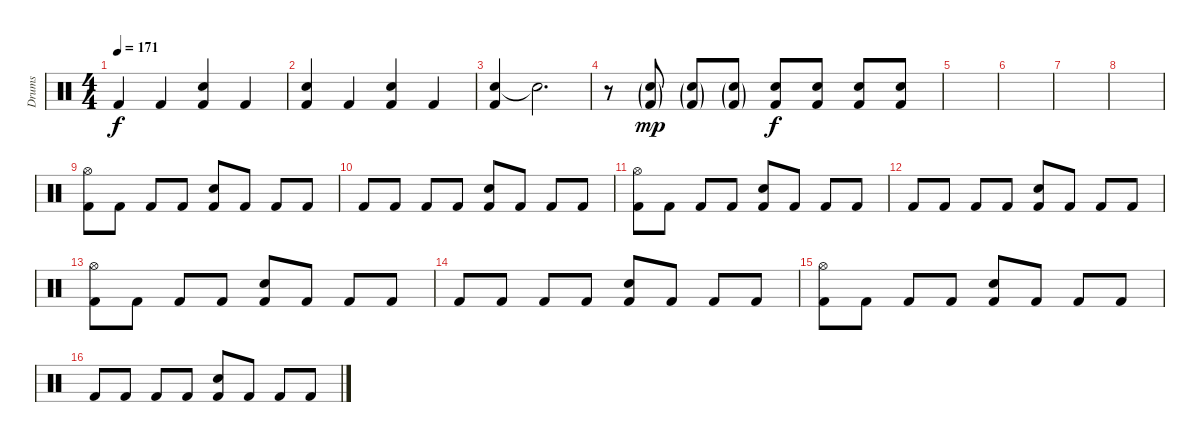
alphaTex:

\track ("Drums" "Drums") {instrument percussion}
\staff {score}
\articulation defaults
\ts (4 4)
\tempo 171
\clef neutral
\ks c "Kick (hit) 2".4{dy f} "Kick (hit) 2".4
("Snare (hit) 2" "Kick (hit) 2").4 "Kick (hit) 2".4 |
("Snare (hit) 2" "Kick (hit) 2").4 "Kick (hit) 2".4 ("Snare (hit) 2" "Kick (hit) 2").4 "Kick (hit) 2".4 |
("Snare (hit) 2" "Kick (hit) 2").4 "Snare (hit)"{t}.2{d} |
r.8 ("Snare (hit) 2"{g} "Kick (hit) 2"{g}).8{dy mp} ("Snare (hit) 2"{g} "Kick (hit) 2"{g}).8 ("Snare (hit) 2"{g} "Kick (hit) 2"{g}).8 ("Snare (hit) 2" "Kick (hit) 2").8{dy f} ("Snare (hit) 2" "Kick (hit) 2").8 ("Snare (hit) 2" "Kick (hit) 2").8 ("Snare (hit) 2" "Kick (hit) 2").8 |
|
|
|
|
("Hi-Hat (open)" "Kick (hit) 2").8 "Kick (hit) 2".8 "Kick (hit) 2".8 "Kick (hit) 2".8 ("Snare (hit) 2" "Kick (hit) 2").8 "Kick (hit) 2".8 "Kick (hit) 2".8 "Kick (hit) 2".8 |
"Kick (hit) 2".8 "Kick (hit) 2".8 "Kick (hit) 2".8 "Kick (hit) 2".8 ("Snare (hit) 2" "Kick (hit) 2").8 "Kick (hit) 2".8 "Kick (hit) 2".8 "Kick (hit) 2".8 |
("Hi-Hat (open)" "Kick (hit) 2").8 "Kick (hit) 2".8 "Kick (hit) 2".8 "Kick (hit) 2".8 ("Snare (hit) 2" "Kick (hit) 2").8 "Kick (hit) 2".8 "Kick (hit) 2".8 "Kick (hit) 2".8 |
"Kick (hit) 2".8 "Kick (hit) 2".8 "Kick (hit) 2".8 "Kick (hit) 2".8 ("Snare (hit) 2" "Kick (hit) 2").8 "Kick (hit) 2".8 "Kick (hit) 2".8 "Kick (hit) 2".8 |
("Hi-Hat (open)" "Kick (hit) 2").8 "Kick (hit) 2".8 "Kick (hit) 2".8 "Kick (hit) 2".8 ("Snare (hit) 2" "Kick (hit) 2").8 "Kick (hit) 2".8 "Kick (hit) 2".8 "Kick (hit) 2".8 |
"Kick (hit) 2".8 "Kick (hit) 2".8 "Kick (hit) 2".8 "Kick (hit) 2".8 ("Snare (hit) 2" "Kick (hit) 2").8 "Kick (hit) 2".8 "Kick (hit) 2".8 "Kick (hit) 2".8 |
("Hi-Hat (open)" "Kick (hit) 2").8 "Kick (hit) 2".8 "Kick (hit) 2".8 "Kick (hit) 2".8 ("Snare (hit) 2" "Kick (hit) 2").8 "Kick (hit) 2".8 "Kick (hit) 2".8 "Kick (hit) 2".8 |
"Kick (hit) 2".8 "Kick (hit) 2".8 "Kick (hit) 2".8 "Kick (hit) 2".8 ("Snare (hit) 2" "Kick (hit) 2").8 "Kick (hit) 2".8 "Kick (hit) 2".8 "Kick (hit) 2".8
